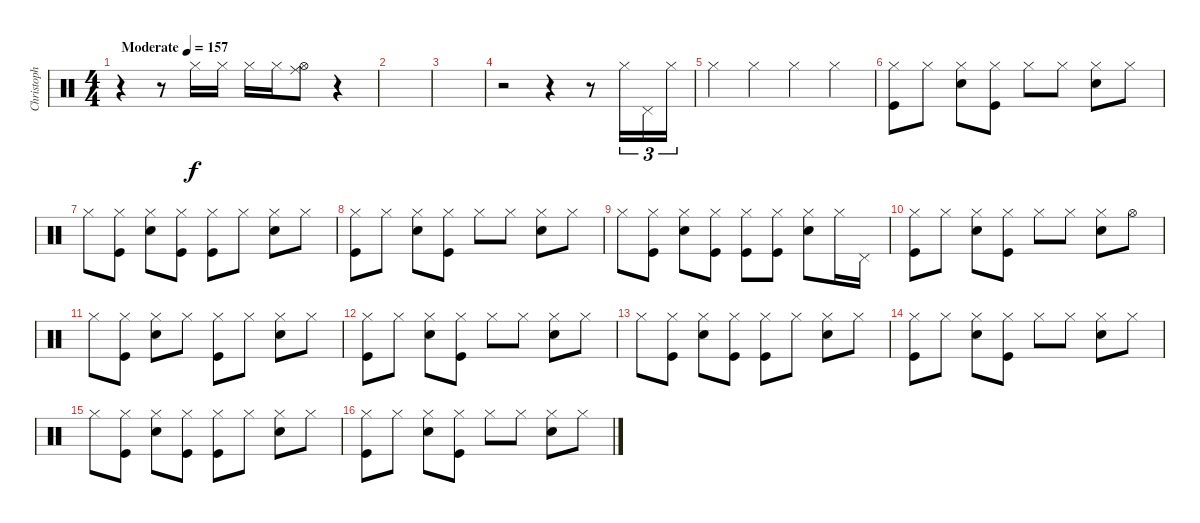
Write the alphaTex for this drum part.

\track ("Christoph" "Christoph") {instrument percussion}
\staff {score}
\articulation defaults
\ts (4 4)
\tempo (157 "Moderate")
\clef neutral
\ks c
r.4{dy f} r.8 "Hi-Hat (closed)".16 "Hi-Hat (closed)".16 "Hi-Hat (closed)".16 "Hi-Hat (closed)".16 ("Hi-Hat (open)" "Ride (middle)").8 r.4 |
|
|
r.2 r.4 r.8 "Hi-Hat (closed)".16{tu (3 2)} "Pedal Hi-Hat (hit)".16{tu (3 2)} "Hi-Hat (closed)".16{tu (3 2)} |
"Hi-Hat (closed)".4 "Hi-Hat (closed)".4 "Hi-Hat (closed)".4 "Hi-Hat (closed)".4 |
("Hi-Hat (closed)" "Kick (hit)").8 "Hi-Hat (closed)".8 ("Hi-Hat (closed)" "Snare (hit) 2").8 ("Hi-Hat (closed)" "Kick (hit)").8 "Hi-Hat (closed)".8 "Hi-Hat (closed)".8 ("Hi-Hat (closed)" "Snare (hit) 2").8 "Hi-Hat (closed)".8 |
"Hi-Hat (closed)".8 ("Hi-Hat (closed)" "Kick (hit)").8 ("Hi-Hat (closed)" "Snare (hit) 2").8 ("Hi-Hat (closed)" "Kick (hit)").8 ("Hi-Hat (closed)" "Kick (hit)").8 "Hi-Hat (closed)".8 ("Hi-Hat (closed)" "Snare (hit) 2").8 "Hi-Hat (closed)".8 |
("Hi-Hat (closed)" "Kick (hit)").8 "Hi-Hat (closed)".8 ("Hi-Hat (closed)" "Snare (hit) 2").8 ("Hi-Hat (closed)" "Kick (hit)").8 "Hi-Hat (closed)".8 "Hi-Hat (closed)".8 ("Hi-Hat (closed)" "Snare (hit) 2").8 "Hi-Hat (closed)".8 |
"Hi-Hat (closed)".8 ("Hi-Hat (closed)" "Kick (hit)").8 ("Hi-Hat (closed)" "Snare (hit) 2").8 ("Hi-Hat (closed)" "Kick (hit)").8 ("Hi-Hat (closed)" "Kick (hit)").8 ("Hi-Hat (closed)" "Kick (hit)").8 ("Hi-Hat (closed)" "Snare (hit) 2").8 "Hi-Hat (closed)".16 "Pedal Hi-Hat (hit)".16 |
("Hi-Hat (closed)" "Kick (hit)").8 "Hi-Hat (closed)".8 ("Hi-Hat (closed)" "Snare (hit) 2").8 ("Hi-Hat (closed)" "Kick (hit)").8 "Hi-Hat (closed)".8 "Hi-Hat (closed)".8 ("Hi-Hat (closed)" "Snare (hit) 2").8 "Hi-Hat (open)".8 |
"Hi-Hat (closed)".8 ("Hi-Hat (closed)" "Kick (hit)").8 ("Hi-Hat (closed)" "Snare (hit) 2").8 "Hi-Hat (closed)".8 ("Hi-Hat (closed)" "Kick (hit)").8 "Hi-Hat (closed)".8 ("Hi-Hat (closed)" "Snare (hit) 2").8 "Hi-Hat (closed)".8 |
("Hi-Hat (closed)" "Kick (hit)").8 "Hi-Hat (closed)".8 ("Hi-Hat (closed)" "Snare (hit) 2").8 ("Hi-Hat (closed)" "Kick (hit)").8 "Hi-Hat (closed)".8 "Hi-Hat (closed)".8 ("Hi-Hat (closed)" "Snare (hit) 2").8 "Hi-Hat (closed)".8 |
"Hi-Hat (closed)".8 ("Hi-Hat (closed)" "Kick (hit)").8 ("Hi-Hat (closed)" "Snare (hit) 2").8 ("Hi-Hat (closed)" "Kick (hit)").8 ("Hi-Hat (closed)" "Kick (hit)").8 "Hi-Hat (closed)".8 ("Hi-Hat (closed)" "Snare (hit) 2").8 "Hi-Hat (closed)".8 |
("Hi-Hat (closed)" "Kick (hit)").8 "Hi-Hat (closed)".8 ("Hi-Hat (closed)" "Snare (hit) 2").8 ("Hi-Hat (closed)" "Kick (hit)").8 "Hi-Hat (closed)".8 "Hi-Hat (closed)".8 ("Hi-Hat (closed)" "Snare (hit) 2").8 "Hi-Hat (closed)".8 |
"Hi-Hat (closed)".8 ("Hi-Hat (closed)" "Kick (hit)").8 ("Hi-Hat (closed)" "Snare (hit) 2").8 ("Hi-Hat (closed)" "Kick (hit)").8 ("Hi-Hat (closed)" "Kick (hit)").8 "Hi-Hat (closed)".8 ("Hi-Hat (closed)" "Snare (hit) 2").8 "Hi-Hat (closed)".8 |
("Hi-Hat (closed)" "Kick (hit)").8 "Hi-Hat (closed)".8 ("Hi-Hat (closed)" "Snare (hit) 2").8 ("Hi-Hat (closed)" "Kick (hit)").8 "Hi-Hat (closed)".8 "Hi-Hat (closed)".8 ("Hi-Hat (closed)" "Snare (hit) 2").8 "Hi-Hat (closed)".8
